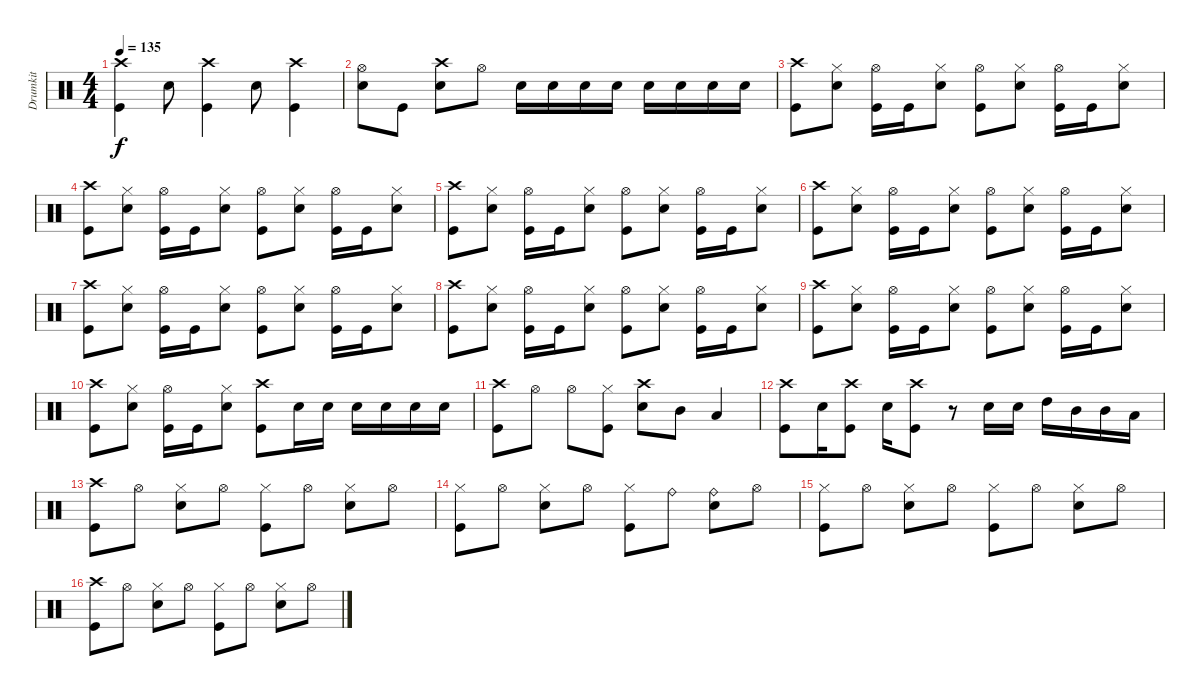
\track ("Drumkit" "Drumkit") {instrument percussion}
\staff {score}
\articulation defaults
\ts (4 4)
\tempo 135
\clef neutral
\ks c
("Crash high (hit)" "Kick (hit)").4{dy f} "Snare (hit) 2".8 ("Kick (hit)" "Crash high (hit)").4 "Snare (hit) 2".8 ("Crash high (hit)" "Kick (hit)").4 |
("Hi-Hat (open)" "Snare (hit) 2").8 "Kick (hit)".8 ("Crash high (hit)" "Snare (hit) 2").8 "Hi-Hat (open)".8 "Snare (hit) 2".16 "Snare (hit) 2".16 "Snare (hit) 2".16 "Snare (hit) 2".16 "Snare (hit) 2".16 "Snare (hit) 2".16 "Snare (hit) 2".16 "Snare (hit) 2".16 |
("Crash high (hit)" "Kick (hit)").8 ("Hi-Hat (closed)" "Snare (hit) 2").8 ("Hi-Hat (open)" "Kick (hit)").16 "Kick (hit)".16 ("Snare (hit) 2" "Hi-Hat (closed)").8 ("Hi-Hat (open)" "Kick (hit)").8 ("Snare (hit) 2" "Hi-Hat (closed)").8 ("Hi-Hat (open)" "Kick (hit)").16 "Kick (hit)".16 ("Hi-Hat (closed)" "Snare (hit) 2").8 |
("Crash high (hit)" "Kick (hit)").8 ("Hi-Hat (closed)" "Snare (hit) 2").8 ("Hi-Hat (open)" "Kick (hit)").16 "Kick (hit)".16 ("Snare (hit) 2" "Hi-Hat (closed)").8 ("Hi-Hat (open)" "Kick (hit)").8 ("Snare (hit) 2" "Hi-Hat (closed)").8 ("Hi-Hat (open)" "Kick (hit)").16 "Kick (hit)".16 ("Hi-Hat (closed)" "Snare (hit) 2").8 |
("Crash high (hit)" "Kick (hit)").8 ("Hi-Hat (closed)" "Snare (hit) 2").8 ("Hi-Hat (open)" "Kick (hit)").16 "Kick (hit)".16 ("Snare (hit) 2" "Hi-Hat (closed)").8 ("Hi-Hat (open)" "Kick (hit)").8 ("Snare (hit) 2" "Hi-Hat (closed)").8 ("Hi-Hat (open)" "Kick (hit)").16 "Kick (hit)".16 ("Hi-Hat (closed)" "Snare (hit) 2").8 |
("Crash high (hit)" "Kick (hit)").8 ("Hi-Hat (closed)" "Snare (hit) 2").8 ("Hi-Hat (open)" "Kick (hit)").16 "Kick (hit)".16 ("Snare (hit) 2" "Hi-Hat (closed)").8 ("Hi-Hat (open)" "Kick (hit)").8 ("Snare (hit) 2" "Hi-Hat (closed)").8 ("Hi-Hat (open)" "Kick (hit)").16 "Kick (hit)".16 ("Hi-Hat (closed)" "Snare (hit) 2").8 |
("Crash high (hit)" "Kick (hit)").8 ("Hi-Hat (closed)" "Snare (hit) 2").8 ("Hi-Hat (open)" "Kick (hit)").16 "Kick (hit)".16 ("Snare (hit) 2" "Hi-Hat (closed)").8 ("Hi-Hat (open)" "Kick (hit)").8 ("Snare (hit) 2" "Hi-Hat (closed)").8 ("Hi-Hat (open)" "Kick (hit)").16 "Kick (hit)".16 ("Hi-Hat (closed)" "Snare (hit) 2").8 |
("Crash high (hit)" "Kick (hit)").8 ("Hi-Hat (closed)" "Snare (hit) 2").8 ("Hi-Hat (open)" "Kick (hit)").16 "Kick (hit)".16 ("Snare (hit) 2" "Hi-Hat (closed)").8 ("Hi-Hat (open)" "Kick (hit)").8 ("Snare (hit) 2" "Hi-Hat (closed)").8 ("Hi-Hat (open)" "Kick (hit)").16 "Kick (hit)".16 ("Hi-Hat (closed)" "Snare (hit) 2").8 |
("Crash high (hit)" "Kick (hit)").8 ("Hi-Hat (closed)" "Snare (hit) 2").8 ("Hi-Hat (open)" "Kick (hit)").16 "Kick (hit)".16 ("Snare (hit) 2" "Hi-Hat (closed)").8 ("Hi-Hat (open)" "Kick (hit)").8 ("Snare (hit) 2" "Hi-Hat (closed)").8 ("Hi-Hat (open)" "Kick (hit)").16 "Kick (hit)".16 ("Hi-Hat (closed)" "Snare (hit) 2").8 |
("Crash high (hit)" "Kick (hit)").8 ("Hi-Hat (closed)" "Snare (hit) 2").8 ("Hi-Hat (open)" "Kick (hit)").16 "Kick (hit)".16 ("Hi-Hat (closed)" "Snare (hit) 2").8 ("Kick (hit)" "Crash high (hit)").8 "Snare (hit) 2".16 "Snare (hit) 2".16 "Snare (hit) 2".16 "Snare (hit) 2".16 "Snare (hit) 2".16 "Snare (hit) 2".16 |
("Crash high (hit)" "Kick (hit)").8 "Hi-Hat (open)".8 "Hi-Hat (open)".8 ("Hi-Hat (closed)" "Kick (hit)").8 ("Crash high (hit)" "Snare (hit) 2").8 "Mid Tom (hit)".8 "Low Tom (hit)".4 |
("Kick (hit)" "Crash high (hit)").8 "Snare (hit) 2".16 ("Crash high (hit)" "Kick (hit)").8 "Snare (hit) 2".16 ("Crash high (hit)" "Kick (hit)").8 r.8 "Snare (hit) 2".16 "Snare (hit) 2".16 "High Tom (hit)".16 "Mid Tom (hit)".16 "Mid Tom (hit)".16 "Low Tom (hit)".16 |
("Crash high (hit)" "Kick (hit)").8 "Hi-Hat (open)".8 ("Hi-Hat (closed)" "Snare (hit) 2").8 "Hi-Hat (open)".8 ("Kick (hit)" "Hi-Hat (closed)").8 "Hi-Hat (open)".8 ("Snare (hit) 2" "Hi-Hat (closed)").8 "Hi-Hat (open)".8 |
("Hi-Hat (closed)" "Kick (hit)").8 "Hi-Hat (open)".8 ("Snare (hit) 2" "Hi-Hat (closed)").8 "Hi-Hat (open)".8 ("Kick (hit)" "Hi-Hat (closed)").8 "Ride (bell)".8 ("Ride (bell)" "Snare (hit) 2").8 "Hi-Hat (open)".8 |
("Hi-Hat (closed)" "Kick (hit)").8 "Hi-Hat (open)".8 ("Snare (hit) 2" "Hi-Hat (closed)").8 "Hi-Hat (open)".8 ("Kick (hit)" "Hi-Hat (closed)").8 "Hi-Hat (open)".8 ("Snare (hit) 2" "Hi-Hat (closed)").8 "Hi-Hat (open)".8 |
("Crash high (hit)" "Kick (hit)").8 "Hi-Hat (open)".8 ("Hi-Hat (closed)" "Snare (hit) 2").8 "Hi-Hat (open)".8 ("Kick (hit)" "Hi-Hat (closed)").8 "Hi-Hat (open)".8 ("Snare (hit) 2" "Hi-Hat (closed)").8 "Hi-Hat (open)".8
